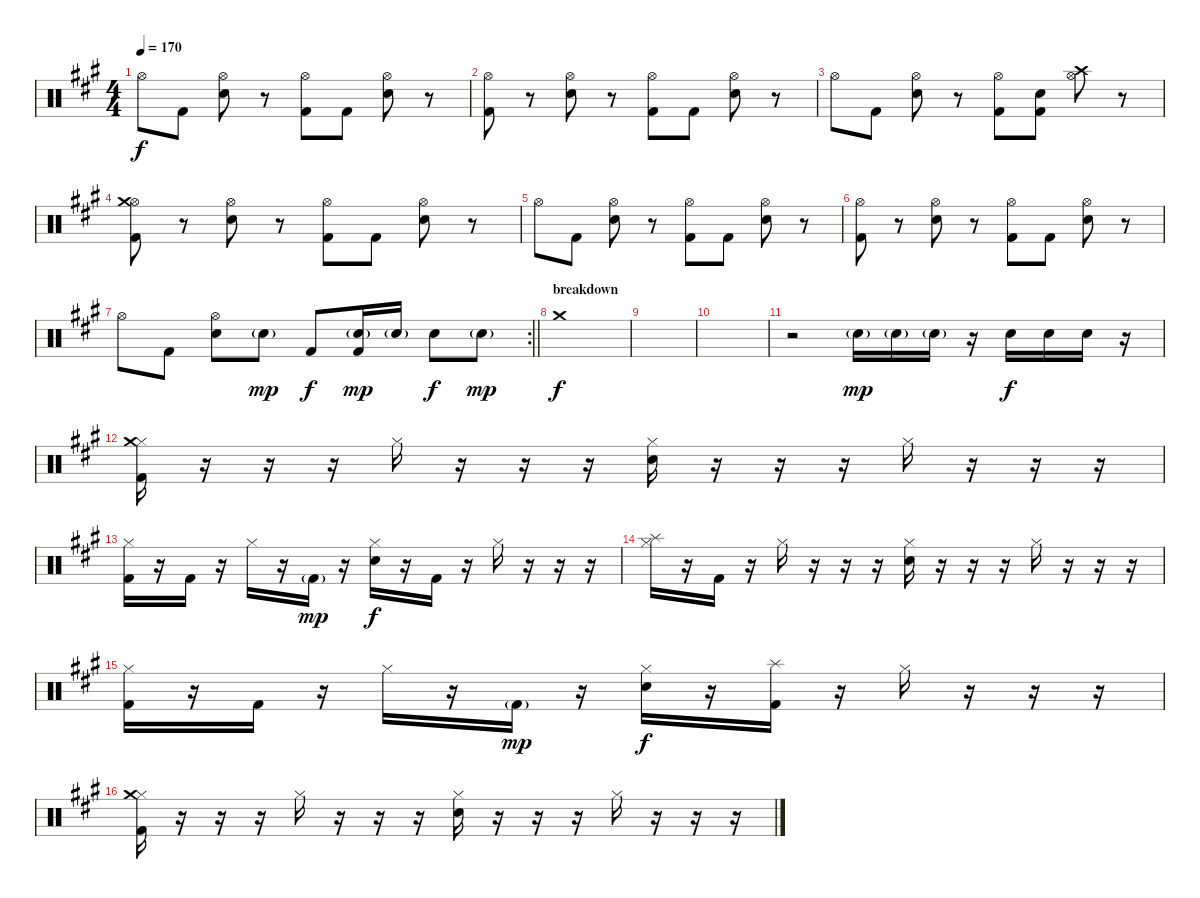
\track "" {instrument percussion}
\staff {score}
\articulation defaults
\ts (4 4)
\tempo 170
\clef neutral
\ks f#minor "Hi-Hat (open)".8{dy f} "Kick (hit) 2".8
("Electric Snare (hit)" "Hi-Hat (open)").8 r.8 ("Kick (hit) 2" "Hi-Hat (open)").8 "Kick (hit) 2".8 ("Electric Snare (hit)" "Hi-Hat (open)").8 r.8 |
("Kick (hit) 2" "Hi-Hat (open)").8 r.8 ("Electric Snare (hit)" "Hi-Hat (open)").8 r.8 ("Kick (hit) 2" "Hi-Hat (open)").8 "Kick (hit) 2".8 ("Electric Snare (hit)" "Hi-Hat (open)").8 r.8 |
"Hi-Hat (open)".8 "Kick (hit) 2".8 ("Electric Snare (hit)" "Hi-Hat (open)").8 r.8 ("Kick (hit) 2" "Hi-Hat (open)").8 ("Kick (hit) 2" "Electric Snare (hit)").8 ("Hi-Hat (open)" "Crash high (hit)").8 r.8 |
("Kick (hit) 2" "Hi-Hat (open)" "Crash medium (hit)").8 r.8 ("Electric Snare (hit)" "Hi-Hat (open)").8 r.8 ("Kick (hit) 2" "Hi-Hat (open)").8 "Kick (hit) 2".8 ("Electric Snare (hit)" "Hi-Hat (open)").8 r.8 |
"Hi-Hat (open)".8 "Kick (hit) 2".8 ("Electric Snare (hit)" "Hi-Hat (open)").8 r.8 ("Kick (hit) 2" "Hi-Hat (open)").8 "Kick (hit) 2".8 ("Electric Snare (hit)" "Hi-Hat (open)").8 r.8 |
("Kick (hit) 2" "Hi-Hat (open)").8 r.8 ("Electric Snare (hit)" "Hi-Hat (open)").8 r.8 ("Kick (hit) 2" "Hi-Hat (open)").8 "Kick (hit) 2".8 ("Electric Snare (hit)" "Hi-Hat (open)").8 r.8 |
\rc 2
\barLineRight lightlight "Hi-Hat (open)".8 "Kick (hit) 2".8
("Electric Snare (hit)" "Hi-Hat (open)").8 "Electric Snare (hit)"{g}.8{dy mp} "Kick (hit) 2".8{dy f} ("Kick (hit) 2" "Electric Snare (hit)"{g}).16{dy mp} "Electric Snare (hit)"{g}.16 "Electric Snare (hit)".8{dy f} "Electric Snare (hit)"{g}.8{dy mp} |
\section ("" "breakdown")
"Crash medium (hit)".1{dy f} |
|
|
r.2 "Electric Snare (hit)"{g}.16{dy mp} "Electric Snare (hit)"{g}.16 "Electric Snare (hit)"{g}.16 r.16 "Electric Snare (hit)".16{dy f} "Electric Snare (hit)".16 "Electric Snare (hit)".16 r.16 |
("Kick (hit) 2" "Hi-Hat (closed)" "Crash medium (hit)").16 r.16 r.16 r.16 "Hi-Hat (closed)".16 r.16 r.16 r.16 ("Electric Snare (hit)" "Hi-Hat (closed)").16 r.16 r.16 r.16 "Hi-Hat (closed)".16 r.16 r.16 r.16 |
("Kick (hit) 2" "Hi-Hat (closed)").16 r.16 "Kick (hit) 2".16 r.16 "Hi-Hat (closed)".16 r.16 "Kick (hit) 2"{g}.16{dy mp} r.16 ("Electric Snare (hit)" "Hi-Hat (closed)").16{dy f} r.16 "Kick (hit) 2".16 r.16 "Hi-Hat (closed)".16 r.16 r.16 r.16 |
("Hi-Hat (closed)" "Splash (hit)").16 r.16 "Kick (hit) 2".16 r.16 "Hi-Hat (closed)".16 r.16 r.16 r.16 ("Electric Snare (hit)" "Hi-Hat (closed)").16 r.16 r.16 r.16 "Hi-Hat (closed)".16 r.16 r.16 r.16 |
("Kick (hit) 2" "Hi-Hat (closed)").16 r.16 "Kick (hit) 2".16 r.16 "Hi-Hat (closed)".16 r.16 "Kick (hit) 2"{g}.16{dy mp} r.16 ("Electric Snare (hit)" "Hi-Hat (closed)").16{dy f} r.16 ("Kick (hit) 2" "Splash (hit)").16 r.16 "Hi-Hat (closed)".16 r.16 r.16 r.16 |
("Kick (hit) 2" "Hi-Hat (closed)" "Crash medium (hit)").16 r.16 r.16 r.16 "Hi-Hat (closed)".16 r.16 r.16 r.16 ("Electric Snare (hit)" "Hi-Hat (closed)").16 r.16 r.16 r.16 "Hi-Hat (closed)".16 r.16 r.16 r.16
